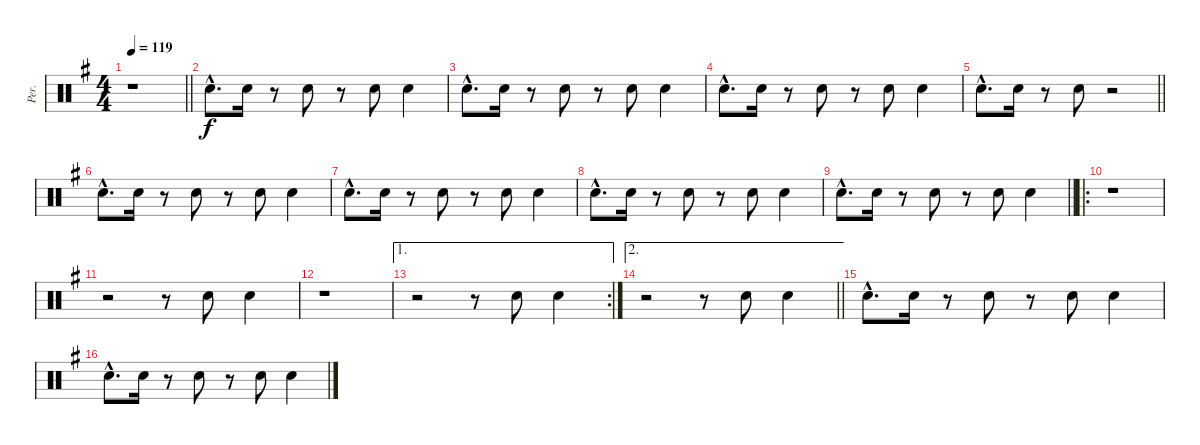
\track ("Per." "Per.") {instrument percussion}
\staff {score}
\articulation defaults
\ts (4 4)
\tempo 119
\clef neutral
\barLineRight lightlight
\ks eminor
r.1{dy f} |
"Hand Clap (hit)"{hac}.8{d} "Hand Clap (hit)".16 r.8 "Hand Clap (hit)".8 r.8 "Hand Clap (hit)".8 "Hand Clap (hit)".4 |
"Hand Clap (hit)"{hac}.8{d} "Hand Clap (hit)".16 r.8 "Hand Clap (hit)".8 r.8 "Hand Clap (hit)".8 "Hand Clap (hit)".4 |
"Hand Clap (hit)"{hac}.8{d} "Hand Clap (hit)".16 r.8 "Hand Clap (hit)".8 r.8 "Hand Clap (hit)".8 "Hand Clap (hit)".4 |
\barLineRight lightlight "Hand Clap (hit)"{hac}.8{d} "Hand Clap (hit)".16
r.8 "Hand Clap (hit)".8 r.2 |
"Hand Clap (hit)"{hac}.8{d} "Hand Clap (hit)".16 r.8 "Hand Clap (hit)".8 r.8 "Hand Clap (hit)".8 "Hand Clap (hit)".4 |
"Hand Clap (hit)"{hac}.8{d} "Hand Clap (hit)".16 r.8 "Hand Clap (hit)".8 r.8 "Hand Clap (hit)".8 "Hand Clap (hit)".4 |
"Hand Clap (hit)"{hac}.8{d} "Hand Clap (hit)".16 r.8 "Hand Clap (hit)".8 r.8 "Hand Clap (hit)".8 "Hand Clap (hit)".4 |
\barLineRight lightlight "Hand Clap (hit)"{hac}.8{d} "Hand Clap (hit)".16
r.8 "Hand Clap (hit)".8 r.8 "Hand Clap (hit)".8 "Hand Clap (hit)".4 |
\ro
r.1 |
r.2 r.8 "Hand Clap (hit)".8 "Hand Clap (hit)".4 |
r.1 |
\ae 1
\rc 2
r.2 r.8 "Hand Clap (hit)".8 "Hand Clap (hit)".4 |
\ae 2
\barLineRight lightlight
r.2 r.8 "Hand Clap (hit)".8 "Hand Clap (hit)".4 |
"Hand Clap (hit)"{hac}.8{d} "Hand Clap (hit)".16 r.8 "Hand Clap (hit)".8 r.8 "Hand Clap (hit)".8 "Hand Clap (hit)".4 |
"Hand Clap (hit)"{hac}.8{d} "Hand Clap (hit)".16 r.8 "Hand Clap (hit)".8 r.8 "Hand Clap (hit)".8 "Hand Clap (hit)".4
